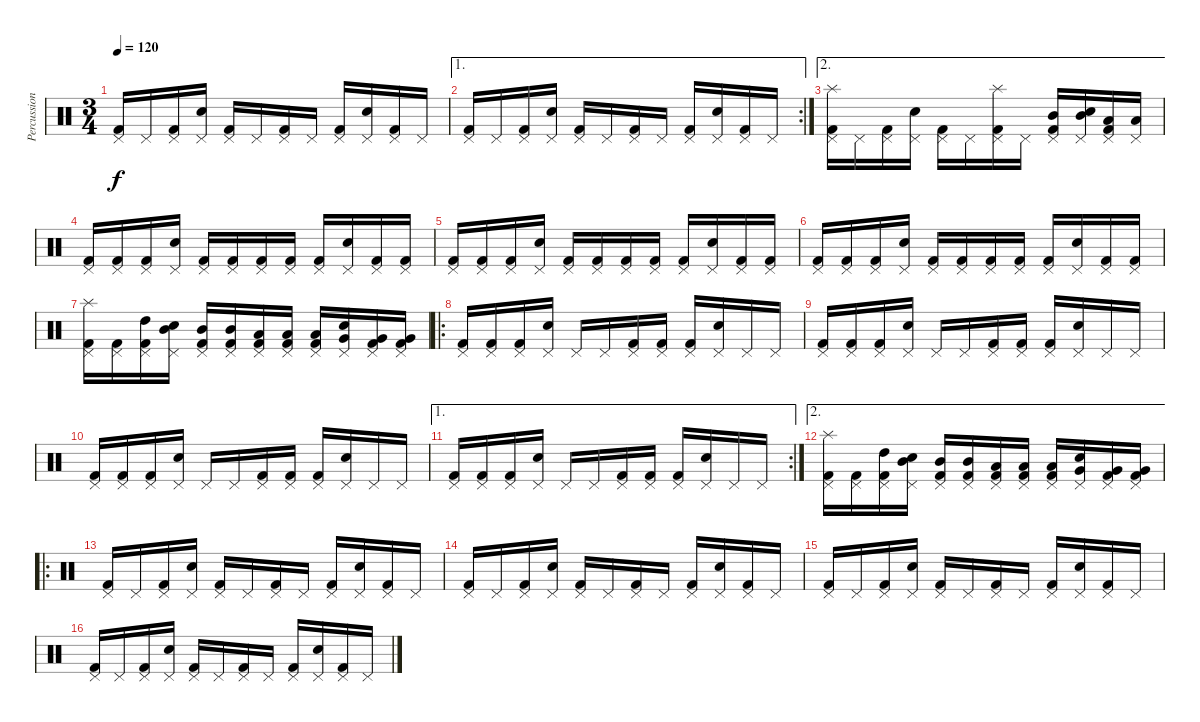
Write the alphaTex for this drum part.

\track ("Percussion" "Percussion") {instrument percussion}
\staff {score}
\articulation defaults
\ts (3 4)
\tempo 120
\clef neutral
\ks c
("Kick (hit) 2" "Pedal Hi-Hat (hit)").16{dy f} "Pedal Hi-Hat (hit)".16 ("Kick (hit) 2" "Pedal Hi-Hat (hit)").16 ("Pedal Hi-Hat (hit)" "Electric Snare (hit)").16 ("Kick (hit) 2" "Pedal Hi-Hat (hit)").16 "Pedal Hi-Hat (hit)".16 ("Kick (hit) 2" "Pedal Hi-Hat (hit)").16 "Pedal Hi-Hat (hit)".16 ("Kick (hit) 2" "Pedal Hi-Hat (hit)").16 ("Pedal Hi-Hat (hit)" "Electric Snare (hit)").16 ("Kick (hit) 2" "Pedal Hi-Hat (hit)").16 "Pedal Hi-Hat (hit)".16 |
\ae 1
\rc 2
("Kick (hit) 2" "Pedal Hi-Hat (hit)").16 "Pedal Hi-Hat (hit)".16 ("Kick (hit) 2" "Pedal Hi-Hat (hit)").16 ("Pedal Hi-Hat (hit)" "Electric Snare (hit)").16 ("Kick (hit) 2" "Pedal Hi-Hat (hit)").16 "Pedal Hi-Hat (hit)".16 ("Kick (hit) 2" "Pedal Hi-Hat (hit)").16 "Pedal Hi-Hat (hit)".16 ("Kick (hit) 2" "Pedal Hi-Hat (hit)").16 ("Pedal Hi-Hat (hit)" "Electric Snare (hit)").16 ("Kick (hit) 2" "Pedal Hi-Hat (hit)").16 "Pedal Hi-Hat (hit)".16 |
\ae 2
("Kick (hit) 2" "Pedal Hi-Hat (hit)" "Splash (hit)").16 "Pedal Hi-Hat (hit)".16 ("Kick (hit) 2" "Pedal Hi-Hat (hit)").16 ("Pedal Hi-Hat (hit)" "Electric Snare (hit)").16 ("Kick (hit) 2" "Pedal Hi-Hat (hit)").16 "Pedal Hi-Hat (hit)".16 ("Kick (hit) 2" "Pedal Hi-Hat (hit)" "Splash (hit)").16 "Pedal Hi-Hat (hit)".16 ("Kick (hit) 2" "Pedal Hi-Hat (hit)" "Mid Tom (hit)").16 ("Pedal Hi-Hat (hit)" "Electric Snare (hit)" "Mid Tom (hit)").16 ("Kick (hit) 2" "Pedal Hi-Hat (hit)" "Low Tom (hit)").16 ("Pedal Hi-Hat (hit)" "Low Tom (hit)").16 |
("Kick (hit) 2" "Pedal Hi-Hat (hit)").16 ("Kick (hit) 2" "Pedal Hi-Hat (hit)").16 ("Kick (hit) 2" "Pedal Hi-Hat (hit)").16 ("Pedal Hi-Hat (hit)" "Electric Snare (hit)").16 ("Kick (hit) 2" "Pedal Hi-Hat (hit)").16 ("Kick (hit) 2" "Pedal Hi-Hat (hit)").16 ("Kick (hit) 2" "Pedal Hi-Hat (hit)").16 ("Kick (hit) 2" "Pedal Hi-Hat (hit)").16 ("Kick (hit) 2" "Pedal Hi-Hat (hit)").16 ("Pedal Hi-Hat (hit)" "Electric Snare (hit)").16 ("Kick (hit) 2" "Pedal Hi-Hat (hit)").16 ("Kick (hit) 2" "Pedal Hi-Hat (hit)").16 |
("Kick (hit) 2" "Pedal Hi-Hat (hit)").16 ("Kick (hit) 2" "Pedal Hi-Hat (hit)").16 ("Kick (hit) 2" "Pedal Hi-Hat (hit)").16 ("Pedal Hi-Hat (hit)" "Electric Snare (hit)").16 ("Kick (hit) 2" "Pedal Hi-Hat (hit)").16 ("Kick (hit) 2" "Pedal Hi-Hat (hit)").16 ("Kick (hit) 2" "Pedal Hi-Hat (hit)").16 ("Kick (hit) 2" "Pedal Hi-Hat (hit)").16 ("Kick (hit) 2" "Pedal Hi-Hat (hit)").16 ("Pedal Hi-Hat (hit)" "Electric Snare (hit)").16 ("Kick (hit) 2" "Pedal Hi-Hat (hit)").16 ("Kick (hit) 2" "Pedal Hi-Hat (hit)").16 |
("Kick (hit) 2" "Pedal Hi-Hat (hit)").16 ("Kick (hit) 2" "Pedal Hi-Hat (hit)").16 ("Kick (hit) 2" "Pedal Hi-Hat (hit)").16 ("Pedal Hi-Hat (hit)" "Electric Snare (hit)").16 ("Kick (hit) 2" "Pedal Hi-Hat (hit)").16 ("Kick (hit) 2" "Pedal Hi-Hat (hit)").16 ("Kick (hit) 2" "Pedal Hi-Hat (hit)").16 ("Kick (hit) 2" "Pedal Hi-Hat (hit)").16 ("Kick (hit) 2" "Pedal Hi-Hat (hit)").16 ("Pedal Hi-Hat (hit)" "Electric Snare (hit)").16 ("Kick (hit) 2" "Pedal Hi-Hat (hit)").16 ("Kick (hit) 2" "Pedal Hi-Hat (hit)").16 |
("Kick (hit) 2" "Pedal Hi-Hat (hit)" "Splash (hit)").16 ("Kick (hit) 2" "Pedal Hi-Hat (hit)").16 ("Kick (hit) 2" "Pedal Hi-Hat (hit)" "High Tom (hit)").16 ("Pedal Hi-Hat (hit)" "Electric Snare (hit)" "Mid Tom (hit)").16 ("Kick (hit) 2" "Pedal Hi-Hat (hit)" "Mid Tom (hit)").16 ("Kick (hit) 2" "Pedal Hi-Hat (hit)" "Mid Tom (hit)").16 ("Kick (hit) 2" "Pedal Hi-Hat (hit)" "Low Tom (hit)").16 ("Kick (hit) 2" "Pedal Hi-Hat (hit)" "Low Tom (hit)").16 ("Kick (hit) 2" "Pedal Hi-Hat (hit)" "Low Tom (hit)").16 ("Pedal Hi-Hat (hit)" "Electric Snare (hit)" "Very Low Tom (hit)").16 ("Kick (hit) 2" "Pedal Hi-Hat (hit)" "Very Low Tom (hit)").16 ("Kick (hit) 2" "Pedal Hi-Hat (hit)" "Very Low Tom (hit)").16 |
\ro
("Kick (hit) 2" "Pedal Hi-Hat (hit)").16 ("Kick (hit) 2" "Pedal Hi-Hat (hit)").16 ("Kick (hit) 2" "Pedal Hi-Hat (hit)").16 ("Pedal Hi-Hat (hit)" "Electric Snare (hit)").16 "Pedal Hi-Hat (hit)".16 "Pedal Hi-Hat (hit)".16 ("Kick (hit) 2" "Pedal Hi-Hat (hit)").16 ("Kick (hit) 2" "Pedal Hi-Hat (hit)").16 ("Kick (hit) 2" "Pedal Hi-Hat (hit)").16 ("Pedal Hi-Hat (hit)" "Electric Snare (hit)").16 "Pedal Hi-Hat (hit)".16 "Pedal Hi-Hat (hit)".16 |
("Kick (hit) 2" "Pedal Hi-Hat (hit)").16 ("Kick (hit) 2" "Pedal Hi-Hat (hit)").16 ("Kick (hit) 2" "Pedal Hi-Hat (hit)").16 ("Pedal Hi-Hat (hit)" "Electric Snare (hit)").16 "Pedal Hi-Hat (hit)".16 "Pedal Hi-Hat (hit)".16 ("Kick (hit) 2" "Pedal Hi-Hat (hit)").16 ("Kick (hit) 2" "Pedal Hi-Hat (hit)").16 ("Kick (hit) 2" "Pedal Hi-Hat (hit)").16 ("Pedal Hi-Hat (hit)" "Electric Snare (hit)").16 "Pedal Hi-Hat (hit)".16 "Pedal Hi-Hat (hit)".16 |
("Kick (hit) 2" "Pedal Hi-Hat (hit)").16 ("Kick (hit) 2" "Pedal Hi-Hat (hit)").16 ("Kick (hit) 2" "Pedal Hi-Hat (hit)").16 ("Pedal Hi-Hat (hit)" "Electric Snare (hit)").16 "Pedal Hi-Hat (hit)".16 "Pedal Hi-Hat (hit)".16 ("Kick (hit) 2" "Pedal Hi-Hat (hit)").16 ("Kick (hit) 2" "Pedal Hi-Hat (hit)").16 ("Kick (hit) 2" "Pedal Hi-Hat (hit)").16 ("Pedal Hi-Hat (hit)" "Electric Snare (hit)").16 "Pedal Hi-Hat (hit)".16 "Pedal Hi-Hat (hit)".16 |
\ae 1
\rc 2
("Kick (hit) 2" "Pedal Hi-Hat (hit)").16 ("Kick (hit) 2" "Pedal Hi-Hat (hit)").16 ("Kick (hit) 2" "Pedal Hi-Hat (hit)").16 ("Pedal Hi-Hat (hit)" "Electric Snare (hit)").16 "Pedal Hi-Hat (hit)".16 "Pedal Hi-Hat (hit)".16 ("Kick (hit) 2" "Pedal Hi-Hat (hit)").16 ("Kick (hit) 2" "Pedal Hi-Hat (hit)").16 ("Kick (hit) 2" "Pedal Hi-Hat (hit)").16 ("Pedal Hi-Hat (hit)" "Electric Snare (hit)").16 "Pedal Hi-Hat (hit)".16 "Pedal Hi-Hat (hit)".16 |
\ae 2
("Kick (hit) 2" "Pedal Hi-Hat (hit)" "Splash (hit)").16 ("Kick (hit) 2" "Pedal Hi-Hat (hit)").16 ("Kick (hit) 2" "Pedal Hi-Hat (hit)" "High Tom (hit)").16 ("Pedal Hi-Hat (hit)" "Electric Snare (hit)" "Mid Tom (hit)").16 ("Kick (hit) 2" "Pedal Hi-Hat (hit)" "Mid Tom (hit)").16 ("Kick (hit) 2" "Pedal Hi-Hat (hit)" "Mid Tom (hit)").16 ("Kick (hit) 2" "Pedal Hi-Hat (hit)" "Low Tom (hit)").16 ("Kick (hit) 2" "Pedal Hi-Hat (hit)" "Low Tom (hit)").16 ("Kick (hit) 2" "Pedal Hi-Hat (hit)" "Low Tom (hit)").16 ("Pedal Hi-Hat (hit)" "Electric Snare (hit)" "Very Low Tom (hit)").16 ("Kick (hit) 2" "Pedal Hi-Hat (hit)" "Very Low Tom (hit)").16 ("Kick (hit) 2" "Pedal Hi-Hat (hit)" "Very Low Tom (hit)").16 |
\ro
("Kick (hit) 2" "Pedal Hi-Hat (hit)").16 "Pedal Hi-Hat (hit)".16 ("Kick (hit) 2" "Pedal Hi-Hat (hit)").16 ("Pedal Hi-Hat (hit)" "Electric Snare (hit)").16 ("Kick (hit) 2" "Pedal Hi-Hat (hit)").16 "Pedal Hi-Hat (hit)".16 ("Kick (hit) 2" "Pedal Hi-Hat (hit)").16 "Pedal Hi-Hat (hit)".16 ("Kick (hit) 2" "Pedal Hi-Hat (hit)").16 ("Pedal Hi-Hat (hit)" "Electric Snare (hit)").16 ("Kick (hit) 2" "Pedal Hi-Hat (hit)").16 "Pedal Hi-Hat (hit)".16 |
("Kick (hit) 2" "Pedal Hi-Hat (hit)").16 "Pedal Hi-Hat (hit)".16 ("Kick (hit) 2" "Pedal Hi-Hat (hit)").16 ("Pedal Hi-Hat (hit)" "Electric Snare (hit)").16 ("Kick (hit) 2" "Pedal Hi-Hat (hit)").16 "Pedal Hi-Hat (hit)".16 ("Kick (hit) 2" "Pedal Hi-Hat (hit)").16 "Pedal Hi-Hat (hit)".16 ("Kick (hit) 2" "Pedal Hi-Hat (hit)").16 ("Pedal Hi-Hat (hit)" "Electric Snare (hit)").16 ("Kick (hit) 2" "Pedal Hi-Hat (hit)").16 "Pedal Hi-Hat (hit)".16 |
("Kick (hit) 2" "Pedal Hi-Hat (hit)").16 "Pedal Hi-Hat (hit)".16 ("Kick (hit) 2" "Pedal Hi-Hat (hit)").16 ("Pedal Hi-Hat (hit)" "Electric Snare (hit)").16 ("Kick (hit) 2" "Pedal Hi-Hat (hit)").16 "Pedal Hi-Hat (hit)".16 ("Kick (hit) 2" "Pedal Hi-Hat (hit)").16 "Pedal Hi-Hat (hit)".16 ("Kick (hit) 2" "Pedal Hi-Hat (hit)").16 ("Pedal Hi-Hat (hit)" "Electric Snare (hit)").16 ("Kick (hit) 2" "Pedal Hi-Hat (hit)").16 "Pedal Hi-Hat (hit)".16 |
("Kick (hit) 2" "Pedal Hi-Hat (hit)").16 "Pedal Hi-Hat (hit)".16 ("Kick (hit) 2" "Pedal Hi-Hat (hit)").16 ("Pedal Hi-Hat (hit)" "Electric Snare (hit)").16 ("Kick (hit) 2" "Pedal Hi-Hat (hit)").16 "Pedal Hi-Hat (hit)".16 ("Kick (hit) 2" "Pedal Hi-Hat (hit)").16 "Pedal Hi-Hat (hit)".16 ("Kick (hit) 2" "Pedal Hi-Hat (hit)").16 ("Pedal Hi-Hat (hit)" "Electric Snare (hit)").16 ("Kick (hit) 2" "Pedal Hi-Hat (hit)").16 "Pedal Hi-Hat (hit)".16
